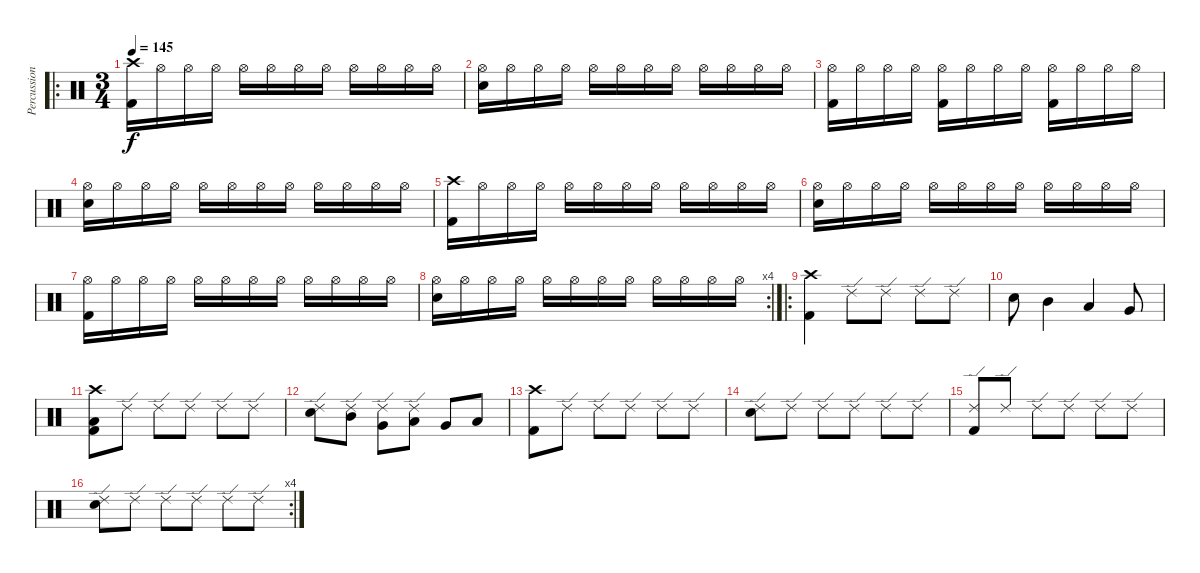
\track ("Percussion" "Percussion") {instrument percussion}
\staff {score}
\articulation defaults
\ro
\ts (3 4)
\tempo 145
\clef neutral
\ks c
("Crash high (hit)" "Kick (hit) 2").16{dy f} "Hi-Hat (open)".16 "Hi-Hat (open)".16 "Hi-Hat (open)".16 "Hi-Hat (open)".16 "Hi-Hat (open)".16 "Hi-Hat (open)".16 "Hi-Hat (open)".16 "Hi-Hat (open)".16 "Hi-Hat (open)".16 "Hi-Hat (open)".16 "Hi-Hat (open)".16 |
("Hi-Hat (open)" "Electric Snare (hit)").16 "Hi-Hat (open)".16 "Hi-Hat (open)".16 "Hi-Hat (open)".16 "Hi-Hat (open)".16 "Hi-Hat (open)".16 "Hi-Hat (open)".16 "Hi-Hat (open)".16 "Hi-Hat (open)".16 "Hi-Hat (open)".16 "Hi-Hat (open)".16 "Hi-Hat (open)".16 |
("Hi-Hat (open)" "Kick (hit) 2").16 "Hi-Hat (open)".16 "Hi-Hat (open)".16 "Hi-Hat (open)".16 ("Hi-Hat (open)" "Kick (hit) 2").16 "Hi-Hat (open)".16 "Hi-Hat (open)".16 "Hi-Hat (open)".16 ("Hi-Hat (open)" "Kick (hit) 2").16 "Hi-Hat (open)".16 "Hi-Hat (open)".16 "Hi-Hat (open)".16 |
("Hi-Hat (open)" "Electric Snare (hit)").16 "Hi-Hat (open)".16 "Hi-Hat (open)".16 "Hi-Hat (open)".16 "Hi-Hat (open)".16 "Hi-Hat (open)".16 "Hi-Hat (open)".16 "Hi-Hat (open)".16 "Hi-Hat (open)".16 "Hi-Hat (open)".16 "Hi-Hat (open)".16 "Hi-Hat (open)".16 |
("Crash high (hit)" "Kick (hit) 2").16 "Hi-Hat (open)".16 "Hi-Hat (open)".16 "Hi-Hat (open)".16 "Hi-Hat (open)".16 "Hi-Hat (open)".16 "Hi-Hat (open)".16 "Hi-Hat (open)".16 "Hi-Hat (open)".16 "Hi-Hat (open)".16 "Hi-Hat (open)".16 "Hi-Hat (open)".16 |
("Hi-Hat (open)" "Electric Snare (hit)").16 "Hi-Hat (open)".16 "Hi-Hat (open)".16 "Hi-Hat (open)".16 "Hi-Hat (open)".16 "Hi-Hat (open)".16 "Hi-Hat (open)".16 "Hi-Hat (open)".16 "Hi-Hat (open)".16 "Hi-Hat (open)".16 "Hi-Hat (open)".16 "Hi-Hat (open)".16 |
("Hi-Hat (open)" "Kick (hit) 2").16 "Hi-Hat (open)".16 "Hi-Hat (open)".16 "Hi-Hat (open)".16 "Hi-Hat (open)".16 "Hi-Hat (open)".16 "Hi-Hat (open)".16 "Hi-Hat (open)".16 "Hi-Hat (open)".16 "Hi-Hat (open)".16 "Hi-Hat (open)".16 "Hi-Hat (open)".16 |
\rc 4
("Hi-Hat (open)" "Electric Snare (hit)").16 "Hi-Hat (open)".16 "Hi-Hat (open)".16 "Hi-Hat (open)".16 "Hi-Hat (open)".16 "Hi-Hat (open)".16 "Hi-Hat (open)".16 "Hi-Hat (open)".16 "Hi-Hat (open)".16 "Hi-Hat (open)".16 "Hi-Hat (open)".16 "Hi-Hat (open)".16 |
\ro
("Crash high (hit)" "Kick (hit) 2").4 "Ride (edge) 2".8 "Ride (edge) 2".8 "Ride (edge) 2".8 "Ride (edge) 2".8 |
"Electric Snare (hit)".8 "Mid Tom (hit)".4 "Low Tom (hit)".4 "Very Low Tom (hit)".8 |
("Crash high (hit)" "Low Floor Tom (hit)" "Kick (hit) 2").8 "Ride (edge) 2".8 "Ride (edge) 2".8 "Ride (edge) 2".8 "Ride (edge) 2".8 "Ride (edge) 2".8 |
("Ride (edge) 2" "Electric Snare (hit)").8 ("Ride (edge) 2" "Mid Tom (hit)").8 ("Ride (edge) 2" "Very Low Tom (hit)").8 ("Ride (edge) 2" "Low Tom (hit)").8 "Very Low Tom (hit)".8 "Low Floor Tom (hit)".8 |
("Crash high (hit)" "Kick (hit) 2").8 "Ride (edge) 2".8 "Ride (edge) 2".8 "Ride (edge) 2".8 "Ride (edge) 2".8 "Ride (edge) 2".8 |
("Ride (edge) 2" "Electric Snare (hit)").8 "Ride (edge) 2".8 "Ride (edge) 2".8 "Ride (edge) 2".8 "Ride (edge) 2".8 "Ride (edge) 2".8 |
("Ride (edge) 2" "Kick (hit) 2").8 "Ride (edge) 2".8 "Ride (edge) 2".8 "Ride (edge) 2".8 "Ride (edge) 2".8 "Ride (edge) 2".8 |
\rc 4
("Ride (edge) 2" "Electric Snare (hit)").8 "Ride (edge) 2".8 "Ride (edge) 2".8 "Ride (edge) 2".8 "Ride (edge) 2".8 "Ride (edge) 2".8
